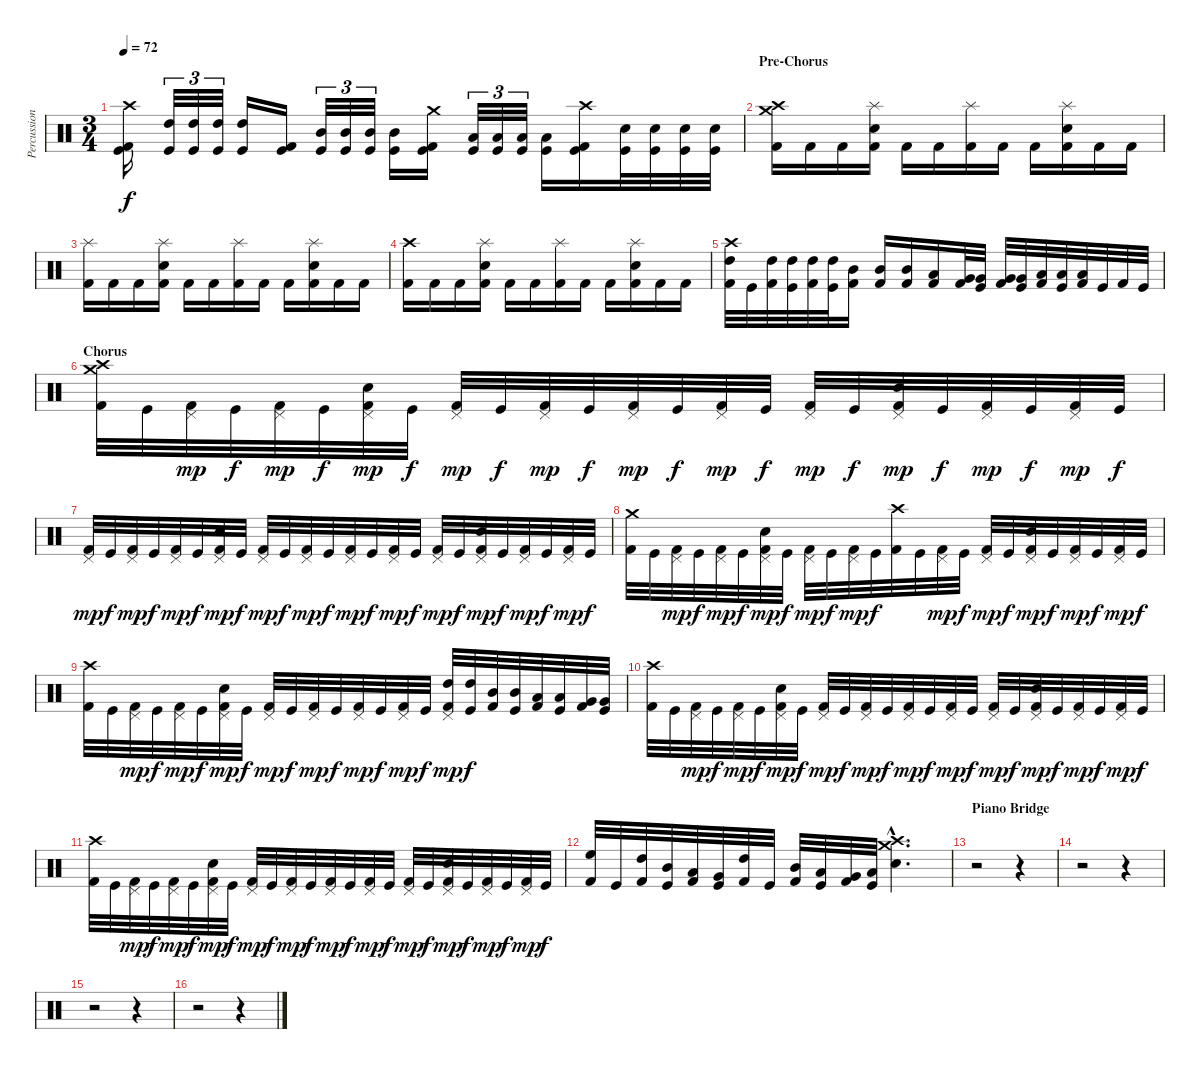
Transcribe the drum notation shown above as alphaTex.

\track ("Percussion" "Percussion") {instrument percussion}
\staff {score}
\articulation defaults
\ts (3 4)
\tempo 72
\clef neutral
\ks c
("Crash high (hit)" "Kick (hit) 2" "Kick (hit)").16{dy f} ("High Tom (hit)" "Kick (hit)").32{tu (3 2)} ("High Tom (hit)" "Kick (hit)").32{tu (3 2)} ("High Tom (hit)" "Kick (hit)").32{tu (3 2)} ("High Tom (hit)" "Kick (hit)").16 ("Kick (hit) 2" "Kick (hit)").16 ("Mid Tom (hit)" "Kick (hit)").32{tu (3 2)} ("Mid Tom (hit)" "Kick (hit)").32{tu (3 2)} ("Mid Tom (hit)" "Kick (hit)").32{tu (3 2)} ("Mid Tom (hit)" "Kick (hit)").16 ("Crash medium (hit)" "Kick (hit) 2" "Kick (hit)").16 ("Low Tom (hit)" "Kick (hit)").32{tu (3 2)} ("Low Tom (hit)" "Kick (hit)").32{tu (3 2)} ("Low Tom (hit)" "Kick (hit)").32{tu (3 2)} ("Low Tom (hit)" "Kick (hit)").16 ("Crash high (hit)" "Kick (hit) 2" "Kick (hit)").16 ("Electric Snare (hit)" "Kick (hit)").32 ("Electric Snare (hit)" "Kick (hit)").32 ("Electric Snare (hit)" "Kick (hit)").32 ("Electric Snare (hit)" "Kick (hit)").32 |
\section ("" "Pre-Chorus")
("Crash medium (hit)" "Crash high (hit)" "Kick (hit) 2").16 "Kick (hit) 2".16 "Kick (hit) 2".16 ("Electric Snare (hit)" "Splash (hit)" "Kick (hit) 2").16 "Kick (hit) 2".16 "Kick (hit) 2".16 ("Splash (hit)" "Kick (hit) 2").16 "Kick (hit) 2".16 "Kick (hit) 2".16 ("Electric Snare (hit)" "Splash (hit)" "Kick (hit) 2").16 "Kick (hit) 2".16 "Kick (hit) 2".16 |
("Splash (hit)" "Kick (hit) 2").16 "Kick (hit) 2".16 "Kick (hit) 2".16 ("Electric Snare (hit)" "Splash (hit)" "Kick (hit) 2").16 "Kick (hit) 2".16 "Kick (hit) 2".16 ("Splash (hit)" "Kick (hit) 2").16 "Kick (hit) 2".16 "Kick (hit) 2".16 ("Electric Snare (hit)" "Splash (hit)" "Kick (hit) 2").16 "Kick (hit) 2".16 "Kick (hit) 2".16 |
("Crash high (hit)" "Kick (hit) 2").16 "Kick (hit) 2".16 "Kick (hit) 2".16 ("Electric Snare (hit)" "Splash (hit)" "Kick (hit) 2").16 "Kick (hit) 2".16 "Kick (hit) 2".16 ("Splash (hit)" "Kick (hit) 2").16 "Kick (hit) 2".16 "Kick (hit) 2".16 ("Electric Snare (hit)" "Splash (hit)" "Kick (hit) 2").16 "Kick (hit) 2".16 "Kick (hit) 2".16 |
("Crash high (hit)" "High Tom (hit)" "Kick (hit) 2").32 "Kick (hit)".32 ("High Tom (hit)" "Kick (hit) 2").32 ("High Tom (hit)" "Kick (hit)").32 ("High Tom (hit)" "Kick (hit) 2").32 ("High Tom (hit)" "Kick (hit)").32 ("Mid Tom (hit)" "Kick (hit) 2").16 ("Mid Tom (hit)" "Kick (hit) 2").16 ("Mid Tom (hit)" "Kick (hit) 2").16 ("Low Tom (hit)" "Kick (hit) 2").16 ("Very Low Tom (hit)" "Kick (hit) 2").32 ("Very Low Tom (hit)" "Kick (hit)").32 ("Very Low Tom (hit)" "Kick (hit) 2").32 ("Very Low Tom (hit)" "Kick (hit)").32 ("Low Floor Tom (hit)" "Kick (hit) 2").32 ("Low Floor Tom (hit)" "Kick (hit)").32 ("Low Floor Tom (hit)" "Kick (hit) 2").32 "Kick (hit)".32 "Kick (hit) 2".32 "Kick (hit)".32 |
\section ("" "Chorus")
("Crash medium (hit)" "Crash high (hit)" "Kick (hit) 2").32 "Kick (hit)".32 ("Pedal Hi-Hat (hit)" "Kick (hit) 2").32{dy mp} "Kick (hit)".32{dy f} ("Pedal Hi-Hat (hit)" "Kick (hit) 2").32{dy mp} "Kick (hit)".32{dy f} ("Pedal Hi-Hat (hit)" "Electric Snare (hit)" "Kick (hit) 2").32{dy mp} "Kick (hit)".32{dy f} ("Pedal Hi-Hat (hit)" "Kick (hit) 2").32{dy mp} "Kick (hit)".32{dy f} ("Pedal Hi-Hat (hit)" "Kick (hit) 2").32{dy mp} "Kick (hit)".32{dy f} ("Pedal Hi-Hat (hit)" "Kick (hit) 2").32{dy mp} "Kick (hit)".32{dy f} ("Pedal Hi-Hat (hit)" "Kick (hit) 2").32{dy mp} "Kick (hit)".32{dy f} ("Pedal Hi-Hat (hit)" "Kick (hit) 2").32{dy mp} "Kick (hit)".32{dy f} ("Pedal Hi-Hat (hit)" "Electric Snare (hit)" "Kick (hit) 2").32{dy mp} "Kick (hit)".32{dy f} ("Pedal Hi-Hat (hit)" "Kick (hit) 2").32{dy mp} "Kick (hit)".32{dy f} ("Pedal Hi-Hat (hit)" "Kick (hit) 2").32{dy mp} "Kick (hit)".32{dy f} |
("Pedal Hi-Hat (hit)" "Kick (hit) 2").32{dy mp} "Kick (hit)".32{dy f} ("Pedal Hi-Hat (hit)" "Kick (hit) 2").32{dy mp} "Kick (hit)".32{dy f} ("Pedal Hi-Hat (hit)" "Kick (hit) 2").32{dy mp} "Kick (hit)".32{dy f} ("Pedal Hi-Hat (hit)" "Electric Snare (hit)" "Kick (hit) 2").32{dy mp} "Kick (hit)".32{dy f} ("Pedal Hi-Hat (hit)" "Kick (hit) 2").32{dy mp} "Kick (hit)".32{dy f} ("Pedal Hi-Hat (hit)" "Kick (hit) 2").32{dy mp} "Kick (hit)".32{dy f} ("Pedal Hi-Hat (hit)" "Kick (hit) 2").32{dy mp} "Kick (hit)".32{dy f} ("Pedal Hi-Hat (hit)" "Kick (hit) 2").32{dy mp} "Kick (hit)".32{dy f} ("Pedal Hi-Hat (hit)" "Kick (hit) 2").32{dy mp} "Kick (hit)".32{dy f} ("Pedal Hi-Hat (hit)" "Electric Snare (hit)" "Kick (hit) 2").32{dy mp} "Kick (hit)".32{dy f} ("Pedal Hi-Hat (hit)" "Kick (hit) 2").32{dy mp} "Kick (hit)".32{dy f} ("Pedal Hi-Hat (hit)" "Kick (hit) 2").32{dy mp} "Kick (hit)".32{dy f} |
("Crash medium (hit)" "Kick (hit) 2").32 "Kick (hit)".32 ("Pedal Hi-Hat (hit)" "Kick (hit) 2").32{dy mp} "Kick (hit)".32{dy f} ("Pedal Hi-Hat (hit)" "Kick (hit) 2").32{dy mp} "Kick (hit)".32{dy f} ("Pedal Hi-Hat (hit)" "Electric Snare (hit)" "Kick (hit) 2").32{dy mp} "Kick (hit)".32{dy f} ("Pedal Hi-Hat (hit)" "Kick (hit) 2").32{dy mp} "Kick (hit)".32{dy f} ("Pedal Hi-Hat (hit)" "Kick (hit) 2").32{dy mp} "Kick (hit)".32{dy f} ("Crash high (hit)" "Kick (hit) 2").32 "Kick (hit)".32 ("Pedal Hi-Hat (hit)" "Kick (hit) 2").32{dy mp} "Kick (hit)".32{dy f} ("Pedal Hi-Hat (hit)" "Kick (hit) 2").32{dy mp} "Kick (hit)".32{dy f} ("Pedal Hi-Hat (hit)" "Electric Snare (hit)" "Kick (hit) 2").32{dy mp} "Kick (hit)".32{dy f} ("Pedal Hi-Hat (hit)" "Kick (hit) 2").32{dy mp} "Kick (hit)".32{dy f} ("Pedal Hi-Hat (hit)" "Kick (hit) 2").32{dy mp} "Kick (hit)".32{dy f} |
("Crash high (hit)" "Kick (hit) 2").32 "Kick (hit)".32 ("Pedal Hi-Hat (hit)" "Kick (hit) 2").32{dy mp} "Kick (hit)".32{dy f} ("Pedal Hi-Hat (hit)" "Kick (hit) 2").32{dy mp} "Kick (hit)".32{dy f} ("Pedal Hi-Hat (hit)" "Electric Snare (hit)" "Kick (hit) 2").32{dy mp} "Kick (hit)".32{dy f} ("Pedal Hi-Hat (hit)" "Kick (hit) 2").32{dy mp} "Kick (hit)".32{dy f} ("Pedal Hi-Hat (hit)" "Kick (hit) 2").32{dy mp} "Kick (hit)".32{dy f} ("Pedal Hi-Hat (hit)" "Kick (hit) 2").32{dy mp} "Kick (hit)".32{dy f} ("Pedal Hi-Hat (hit)" "Kick (hit) 2").32{dy mp} "Kick (hit)".32{dy f} ("Pedal Hi-Hat (hit)" "High Tom (hit)" "Kick (hit) 2").32{dy mp} ("High Tom (hit)" "Kick (hit)").32{dy f} ("Mid Tom (hit)" "Kick (hit) 2").32 ("Mid Tom (hit)" "Kick (hit)").32 ("Low Tom (hit)" "Kick (hit) 2").32 ("Low Tom (hit)" "Kick (hit)").32 ("Very Low Tom (hit)" "Kick (hit) 2").32 ("Very Low Tom (hit)" "Kick (hit)").32 |
("Crash high (hit)" "Kick (hit) 2").32 "Kick (hit)".32 ("Pedal Hi-Hat (hit)" "Kick (hit) 2").32{dy mp} "Kick (hit)".32{dy f} ("Pedal Hi-Hat (hit)" "Kick (hit) 2").32{dy mp} "Kick (hit)".32{dy f} ("Pedal Hi-Hat (hit)" "Electric Snare (hit)" "Kick (hit) 2").32{dy mp} "Kick (hit)".32{dy f} ("Pedal Hi-Hat (hit)" "Kick (hit) 2").32{dy mp} "Kick (hit)".32{dy f} ("Pedal Hi-Hat (hit)" "Kick (hit) 2").32{dy mp} "Kick (hit)".32{dy f} ("Pedal Hi-Hat (hit)" "Kick (hit) 2").32{dy mp} "Kick (hit)".32{dy f} ("Pedal Hi-Hat (hit)" "Kick (hit) 2").32{dy mp} "Kick (hit)".32{dy f} ("Pedal Hi-Hat (hit)" "Kick (hit) 2").32{dy mp} "Kick (hit)".32{dy f} ("Pedal Hi-Hat (hit)" "Electric Snare (hit)" "Kick (hit) 2").32{dy mp} "Kick (hit)".32{dy f} ("Pedal Hi-Hat (hit)" "Kick (hit) 2").32{dy mp} "Kick (hit)".32{dy f} ("Pedal Hi-Hat (hit)" "Kick (hit) 2").32{dy mp} "Kick (hit)".32{dy f} |
("Crash high (hit)" "Kick (hit) 2").32 "Kick (hit)".32 ("Pedal Hi-Hat (hit)" "Kick (hit) 2").32{dy mp} "Kick (hit)".32{dy f} ("Pedal Hi-Hat (hit)" "Kick (hit) 2").32{dy mp} "Kick (hit)".32{dy f} ("Pedal Hi-Hat (hit)" "Electric Snare (hit)" "Kick (hit) 2").32{dy mp} "Kick (hit)".32{dy f} ("Pedal Hi-Hat (hit)" "Kick (hit) 2").32{dy mp} "Kick (hit)".32{dy f} ("Pedal Hi-Hat (hit)" "Kick (hit) 2").32{dy mp} "Kick (hit)".32{dy f} ("Pedal Hi-Hat (hit)" "Kick (hit) 2").32{dy mp} "Kick (hit)".32{dy f} ("Pedal Hi-Hat (hit)" "Kick (hit) 2").32{dy mp} "Kick (hit)".32{dy f} ("Pedal Hi-Hat (hit)" "Kick (hit) 2").32{dy mp} "Kick (hit)".32{dy f} ("Pedal Hi-Hat (hit)" "Electric Snare (hit)" "Kick (hit) 2").32{dy mp} "Kick (hit)".32{dy f} ("Pedal Hi-Hat (hit)" "Kick (hit) 2").32{dy mp} "Kick (hit)".32{dy f} ("Pedal Hi-Hat (hit)" "Kick (hit) 2").32{dy mp} "Kick (hit)".32{dy f} |
("High Floor Tom (hit)" "Kick (hit) 2").32 "Kick (hit)".32 ("High Tom (hit)" "Kick (hit) 2").32 ("Mid Tom (hit)" "Kick (hit)").32 ("Low Tom (hit)" "Kick (hit) 2").32 ("Very Low Tom (hit)" "Kick (hit)").32 ("High Tom (hit)" "Kick (hit) 2").32 "Kick (hit)".32 ("Mid Tom (hit)" "Kick (hit) 2").32 ("Low Tom (hit)" "Kick (hit)").32 ("Very Low Tom (hit)" "Kick (hit) 2").32 ("Low Floor Tom (hit)" "Kick (hit)").32 ("Crash medium (hit)"{hac} "Crash high (hit)"{hac} "Electric Snare (hit)"{hac}).4{d} |
\section ("" "Piano Bridge")
r.2 r.4 |
r.2 r.4 |
r.2 r.4 |
r.2 r.4
